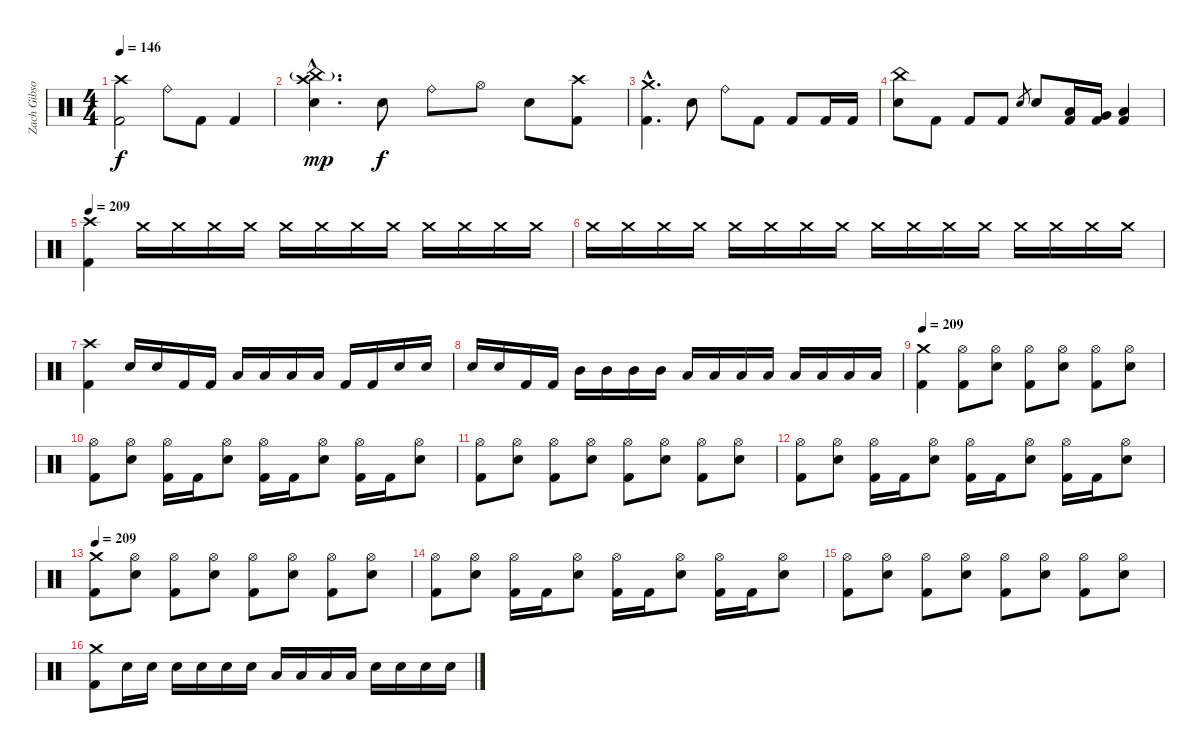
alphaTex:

\track ("Zach Gibson (Drums)" "Zach Gibso") {instrument percussion}
\staff {score}
\articulation defaults
\ts (4 4)
\tempo 146
\clef neutral
\ks c
("Crash high (hit)" "Kick (hit) 2").2{dy f} "Ride (bell)".8 "Kick (hit) 2".8 "Kick (hit) 2".4 |
("Crash high (hit)"{hac} "China (hit)"{g hac} "Snare (hit) 2"{hac}).4{d dy mp} "Snare (hit) 2".8{dy f} "Ride (bell)".8 "Hi-Hat (open)".8 "Snare (hit) 2".8 ("Crash high (hit)" "Kick (hit) 2").8 |
("Crash medium (hit)"{hac} "Kick (hit) 2"{hac}).4{d} "Snare (hit) 2".8 "Ride (bell)".8 "Kick (hit) 2".8 "Kick (hit) 2".8 "Kick (hit) 2".16 "Kick (hit) 2".16 |
("China (hit)" "Snare (hit) 2").8 "Kick (hit) 2".8 "Kick (hit) 2".8 "Kick (hit) 2".8 "Snare (hit) 2".8{gr} "Snare (hit) 2".8 ("Low Tom (hit)" "Kick (hit) 2").16 ("Very Low Tom (hit)" "Kick (hit) 2").16 ("Low Floor Tom (hit)" "Kick (hit) 2").4 |
\tempo 209
("Crash high (hit)" "Kick (hit) 2").4 "Crash medium (hit)".16 "Crash medium (hit)".16 "Crash medium (hit)".16 "Crash medium (hit)".16 "Crash medium (hit)".16 "Crash medium (hit)".16 "Crash medium (hit)".16 "Crash medium (hit)".16 "Crash medium (hit)".16 "Crash medium (hit)".16 "Crash medium (hit)".16 "Crash medium (hit)".16 |
"Crash medium (hit)".16 "Crash medium (hit)".16 "Crash medium (hit)".16 "Crash medium (hit)".16 "Crash medium (hit)".16 "Crash medium (hit)".16 "Crash medium (hit)".16 "Crash medium (hit)".16 "Crash medium (hit)".16 "Crash medium (hit)".16 "Crash medium (hit)".16 "Crash medium (hit)".16 "Crash medium (hit)".16 "Crash medium (hit)".16 "Crash medium (hit)".16 "Crash medium (hit)".16 |
("Crash high (hit)" "Kick (hit) 2").4 "Snare (hit) 2".16 "Snare (hit) 2".16 "Kick (hit) 2".16 "Kick (hit) 2".16 "Low Tom (hit)".16 "Low Tom (hit)".16 "Low Tom (hit)".16 "Low Tom (hit)".16 "Kick (hit) 2".16 "Kick (hit) 2".16 "Snare (hit) 2".16 "Snare (hit) 2".16 |
"Snare (hit) 2".16 "Snare (hit) 2".16 "Kick (hit) 2".16 "Kick (hit) 2".16 "Mid Tom (hit)".16 "Mid Tom (hit)".16 "Mid Tom (hit)".16 "Mid Tom (hit)".16 "Low Tom (hit)".16 "Low Tom (hit)".16 "Low Tom (hit)".16 "Low Tom (hit)".16 "Low Floor Tom (hit)".16 "Low Floor Tom (hit)".16 "Low Floor Tom (hit)".16 "Low Floor Tom (hit)".16 |
\tempo 209
("Crash medium (hit)" "Kick (hit) 2").4 ("Hi-Hat (open)" "Kick (hit) 2").8 ("Hi-Hat (open)" "Snare (hit) 2").8 ("Hi-Hat (open)" "Kick (hit) 2").8 ("Hi-Hat (open)" "Snare (hit) 2").8 ("Hi-Hat (open)" "Kick (hit) 2").8 ("Hi-Hat (open)" "Snare (hit) 2").8 |
("Hi-Hat (open)" "Kick (hit) 2").8 ("Hi-Hat (open)" "Snare (hit) 2").8 ("Hi-Hat (open)" "Kick (hit) 2").16 "Kick (hit) 2".16 ("Hi-Hat (open)" "Snare (hit) 2").8 ("Hi-Hat (open)" "Kick (hit) 2").16 "Kick (hit) 2".16 ("Hi-Hat (open)" "Snare (hit) 2").8 ("Hi-Hat (open)" "Kick (hit) 2").16 "Kick (hit) 2".16 ("Hi-Hat (open)" "Snare (hit) 2").8 |
("Hi-Hat (open)" "Kick (hit) 2").8 ("Hi-Hat (open)" "Snare (hit) 2").8 ("Hi-Hat (open)" "Kick (hit) 2").8 ("Hi-Hat (open)" "Snare (hit) 2").8 ("Hi-Hat (open)" "Kick (hit) 2").8 ("Hi-Hat (open)" "Snare (hit) 2").8 ("Hi-Hat (open)" "Kick (hit) 2").8 ("Hi-Hat (open)" "Snare (hit) 2").8 |
("Hi-Hat (open)" "Kick (hit) 2").8 ("Hi-Hat (open)" "Snare (hit) 2").8 ("Hi-Hat (open)" "Kick (hit) 2").16 "Kick (hit) 2".16 ("Hi-Hat (open)" "Snare (hit) 2").8 ("Hi-Hat (open)" "Kick (hit) 2").16 "Kick (hit) 2".16 ("Hi-Hat (open)" "Snare (hit) 2").8 ("Hi-Hat (open)" "Kick (hit) 2").16 "Kick (hit) 2".16 ("Hi-Hat (open)" "Snare (hit) 2").8 |
\tempo 209
("Crash medium (hit)" "Kick (hit) 2").8 ("Hi-Hat (open)" "Snare (hit) 2").8 ("Hi-Hat (open)" "Kick (hit) 2").8 ("Hi-Hat (open)" "Snare (hit) 2").8 ("Hi-Hat (open)" "Kick (hit) 2").8 ("Hi-Hat (open)" "Snare (hit) 2").8 ("Hi-Hat (open)" "Kick (hit) 2").8 ("Hi-Hat (open)" "Snare (hit) 2").8 |
("Hi-Hat (open)" "Kick (hit) 2").8 ("Hi-Hat (open)" "Snare (hit) 2").8 ("Hi-Hat (open)" "Kick (hit) 2").16 "Kick (hit) 2".16 ("Hi-Hat (open)" "Snare (hit) 2").8 ("Hi-Hat (open)" "Kick (hit) 2").16 "Kick (hit) 2".16 ("Hi-Hat (open)" "Snare (hit) 2").8 ("Hi-Hat (open)" "Kick (hit) 2").16 "Kick (hit) 2".16 ("Hi-Hat (open)" "Snare (hit) 2").8 |
("Hi-Hat (open)" "Kick (hit) 2").8 ("Hi-Hat (open)" "Snare (hit) 2").8 ("Hi-Hat (open)" "Kick (hit) 2").8 ("Hi-Hat (open)" "Snare (hit) 2").8 ("Hi-Hat (open)" "Kick (hit) 2").8 ("Hi-Hat (open)" "Snare (hit) 2").8 ("Hi-Hat (open)" "Kick (hit) 2").8 ("Hi-Hat (open)" "Snare (hit) 2").8 |
("Crash medium (hit)" "Kick (hit) 2").8 "Snare (hit) 2".16 "Snare (hit) 2".16 "Snare (hit) 2".16 "Snare (hit) 2".16 "Snare (hit) 2".16 "Snare (hit) 2".16 "Low Tom (hit)".16 "Low Tom (hit)".16 "Low Tom (hit)".16 "Low Tom (hit)".16 "Snare (hit) 2".16 "Snare (hit) 2".16 "Snare (hit) 2".16 "Snare (hit) 2".16
